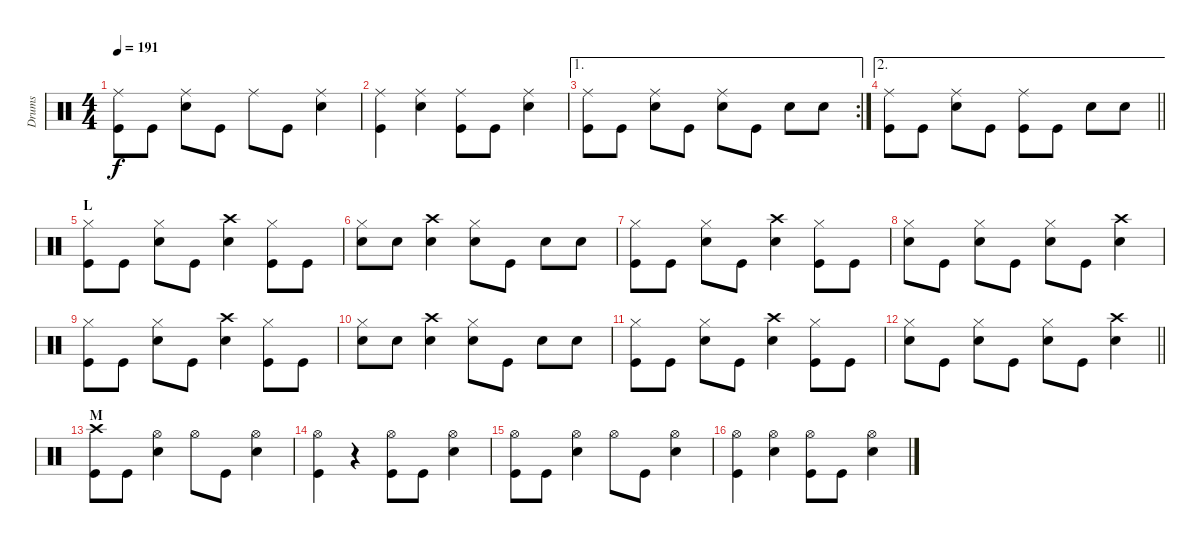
\track ("Drums" "Drums") {instrument percussion}
\staff {score}
\articulation defaults
\ts (4 4)
\tempo 191
\clef neutral
\ks c
("Ride (middle)" "Kick (hit)").8{dy f} "Kick (hit)".8 ("Ride (middle)" "Electric Snare (hit)").8 "Kick (hit)".8 "Ride (middle)".8 "Kick (hit)".8 ("Ride (middle)" "Electric Snare (hit)").4 |
("Ride (middle)" "Kick (hit)").4 ("Ride (middle)" "Electric Snare (hit)").4 ("Ride (middle)" "Kick (hit)").8 "Kick (hit)".8 ("Ride (middle)" "Electric Snare (hit)").4 |
\ae 1
\rc 2
("Ride (middle)" "Kick (hit)").8 "Kick (hit)".8 ("Ride (middle)" "Electric Snare (hit)").8 "Kick (hit)".8 ("Ride (middle)" "Electric Snare (hit)").8 "Kick (hit)".8 "Electric Snare (hit)".8 "Electric Snare (hit)".8 |
\ae 2
\barLineRight lightlight
("Ride (middle)" "Kick (hit)").8 "Kick (hit)".8 ("Ride (middle)" "Electric Snare (hit)").8 "Kick (hit)".8 ("Ride (middle)" "Kick (hit)").8 "Kick (hit)".8 "Electric Snare (hit)".8 "Electric Snare (hit)".8 |
\section ("" "L")
("Hi-Hat (closed)" "Kick (hit)").8 "Kick (hit)".8 ("Hi-Hat (closed)" "Electric Snare (hit)").8 "Kick (hit)".8 ("Crash high (hit)" "Electric Snare (hit)").4 ("Hi-Hat (closed)" "Kick (hit)").8 "Kick (hit)".8 |
("Hi-Hat (closed)" "Electric Snare (hit)").8 "Snare (hit)".8 ("Crash high (hit)" "Electric Snare (hit)").4 ("Hi-Hat (closed)" "Electric Snare (hit)").8 "Kick (hit)".8 "Electric Snare (hit)".8 "Electric Snare (hit)".8 |
("Hi-Hat (closed)" "Kick (hit)").8 "Kick (hit)".8 ("Hi-Hat (closed)" "Electric Snare (hit)").8 "Kick (hit)".8 ("Crash high (hit)" "Electric Snare (hit)").4 ("Hi-Hat (closed)" "Kick (hit)").8 "Kick (hit)".8 |
("Hi-Hat (closed)" "Electric Snare (hit)").8 "Kick (hit)".8 ("Hi-Hat (closed)" "Electric Snare (hit)").8 "Kick (hit)".8 ("Hi-Hat (closed)" "Electric Snare (hit)").8 "Kick (hit)".8 ("Crash high (hit)" "Electric Snare (hit)").4 |
("Hi-Hat (closed)" "Kick (hit)").8 "Kick (hit)".8 ("Hi-Hat (closed)" "Electric Snare (hit)").8 "Kick (hit)".8 ("Crash high (hit)" "Electric Snare (hit)").4 ("Hi-Hat (closed)" "Kick (hit)").8 "Kick (hit)".8 |
("Hi-Hat (closed)" "Electric Snare (hit)").8 "Snare (hit)".8 ("Crash high (hit)" "Electric Snare (hit)").4 ("Hi-Hat (closed)" "Electric Snare (hit)").8 "Kick (hit)".8 "Electric Snare (hit)".8 "Electric Snare (hit)".8 |
("Hi-Hat (closed)" "Kick (hit)").8 "Kick (hit)".8 ("Hi-Hat (closed)" "Electric Snare (hit)").8 "Kick (hit)".8 ("Crash high (hit)" "Electric Snare (hit)").4 ("Hi-Hat (closed)" "Kick (hit)").8 "Kick (hit)".8 |
\barLineRight lightlight
("Hi-Hat (closed)" "Electric Snare (hit)").8 "Kick (hit)".8 ("Hi-Hat (closed)" "Electric Snare (hit)").8 "Kick (hit)".8 ("Hi-Hat (closed)" "Electric Snare (hit)").8 "Kick (hit)".8 ("Crash high (hit)" "Electric Snare (hit)").4 |
\section ("" "M")
("Crash high (hit)" "Kick (hit)").8 "Kick (hit)".8 ("Hi-Hat (open)" "Electric Snare (hit)").4 "Hi-Hat (open)".8 "Kick (hit)".8 ("Hi-Hat (open)" "Electric Snare (hit)").4 |
("Hi-Hat (open)" "Kick (hit)").4 r.4 ("Hi-Hat (open)" "Kick (hit)").8 "Kick (hit)".8 ("Hi-Hat (open)" "Electric Snare (hit)").4 |
("Hi-Hat (open)" "Kick (hit)").8 "Kick (hit)".8 ("Hi-Hat (open)" "Electric Snare (hit)").4 "Hi-Hat (open)".8 "Kick (hit)".8 ("Hi-Hat (open)" "Electric Snare (hit)").4 |
("Hi-Hat (open)" "Kick (hit)").4 ("Hi-Hat (open)" "Electric Snare (hit)").4 ("Hi-Hat (open)" "Kick (hit)").8 "Kick (hit)".8 ("Hi-Hat (open)" "Electric Snare (hit)").4
